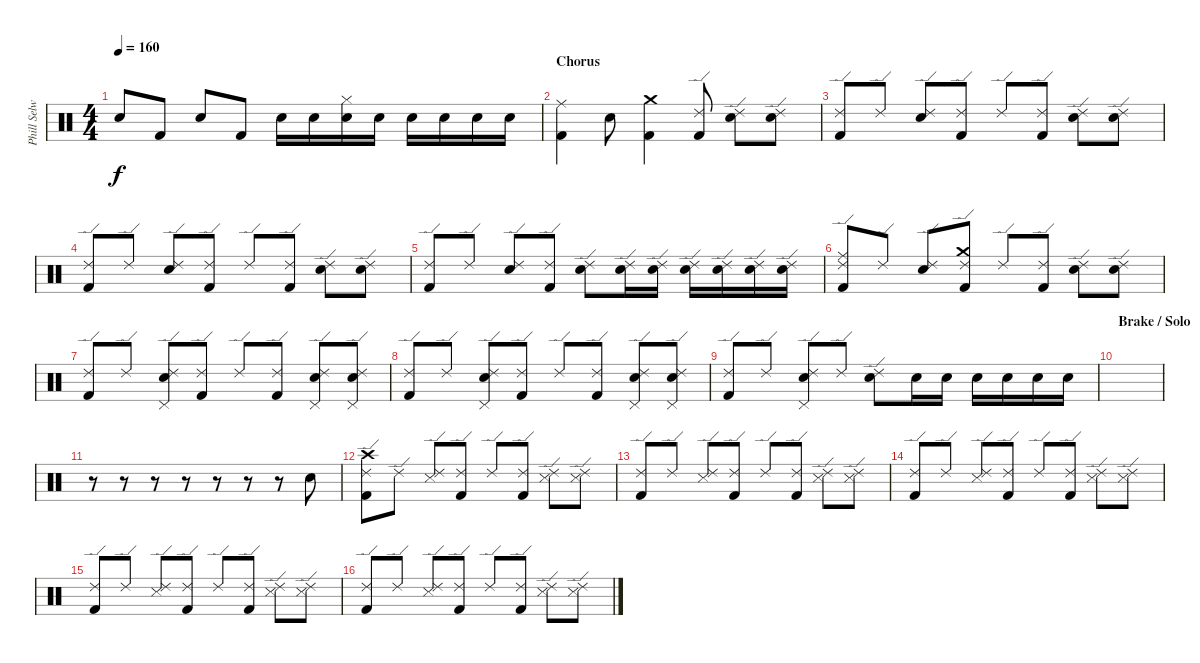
\track ("Phill Selway" "Phill Selw") {instrument percussion}
\staff {score}
\articulation defaults
\ts (4 4)
\tempo 160
\clef neutral
\ks c "Snare (hit) 2".8{dy f} "Kick (hit) 2".8 "Snare (hit) 2".8 "Kick (hit) 2".8 "Snare (hit) 2".16 "Snare (hit) 2".16
("Snare (hit) 2" "Hi-Hat (closed)").16 "Snare (hit) 2".16 "Snare (hit) 2".16 "Snare (hit) 2".16 "Snare (hit) 2".16 "Snare (hit) 2".16 |
\section ("" "Chorus")
("Ride (middle)" "Kick (hit) 2").4 "Snare (hit) 2".8 ("Crash medium (hit)" "Kick (hit) 2").4 ("Kick (hit) 2" "Ride (edge) 2").8 ("Snare (hit) 2" "Ride (edge) 2").8 ("Snare (hit) 2" "Ride (edge) 2").8 |
("Kick (hit) 2" "Ride (edge) 2").8 "Ride (edge) 2".8 ("Snare (hit) 2" "Ride (edge) 2").8 ("Kick (hit) 2" "Ride (edge) 2").8 "Ride (edge) 2".8 ("Kick (hit) 2" "Ride (edge) 2").8 ("Snare (hit) 2" "Ride (edge) 2").8 ("Snare (hit) 2" "Ride (edge) 2").8 |
("Kick (hit) 2" "Ride (edge) 2").8 "Ride (edge) 2".8 ("Snare (hit) 2" "Ride (edge) 2").8 ("Kick (hit) 2" "Ride (edge) 2").8 "Ride (edge) 2".8 ("Kick (hit) 2" "Ride (edge) 2").8 ("Snare (hit) 2" "Ride (edge) 2").8 ("Snare (hit) 2" "Ride (edge) 2").8 |
("Kick (hit) 2" "Ride (edge) 2").8 "Ride (edge) 2".8 ("Snare (hit) 2" "Ride (edge) 2").8 ("Kick (hit) 2" "Ride (edge) 2").8 ("Snare (hit) 2" "Ride (edge) 2").8 ("Snare (hit) 2" "Ride (edge) 2").16 ("Snare (hit) 2" "Ride (edge) 2").16 ("Snare (hit) 2" "Ride (edge) 2").16 ("Snare (hit) 2" "Ride (edge) 2").16 ("Snare (hit) 2" "Ride (edge) 2").16 ("Snare (hit) 2" "Ride (edge) 2").16 |
("Kick (hit) 2" "Ride (middle)" "Ride (edge) 2").8 "Ride (edge) 2".8 ("Snare (hit) 2" "Ride (edge) 2").8 ("Kick (hit) 2" "Crash medium (hit)" "Ride (edge) 2").8 "Ride (edge) 2".8 ("Kick (hit) 2" "Ride (edge) 2").8 ("Snare (hit) 2" "Ride (edge) 2").8 ("Snare (hit) 2" "Ride (edge) 2").8 |
("Kick (hit) 2" "Ride (edge) 2").8 "Ride (edge) 2".8 ("Snare (hit) 2" "Pedal Hi-Hat (hit)" "Ride (edge) 2").8 ("Kick (hit) 2" "Ride (edge) 2").8 "Ride (edge) 2".8 ("Kick (hit) 2" "Ride (edge) 2").8 ("Snare (hit) 2" "Pedal Hi-Hat (hit)" "Ride (edge) 2").8 ("Snare (hit) 2" "Pedal Hi-Hat (hit)" "Ride (edge) 2").8 |
("Kick (hit) 2" "Ride (edge) 2").8 "Ride (edge) 2".8 ("Snare (hit) 2" "Pedal Hi-Hat (hit)" "Ride (edge) 2").8 ("Kick (hit) 2" "Ride (edge) 2").8 "Ride (edge) 2".8 ("Kick (hit) 2" "Ride (edge) 2").8 ("Snare (hit) 2" "Pedal Hi-Hat (hit)" "Ride (edge) 2").8 ("Snare (hit) 2" "Pedal Hi-Hat (hit)" "Ride (edge) 2").8 |
("Kick (hit) 2" "Ride (edge) 2").8 "Ride (edge) 2".8 ("Snare (hit) 2" "Pedal Hi-Hat (hit)" "Ride (edge) 2").8 "Ride (edge) 2".8 ("Snare (hit) 2" "Ride (edge) 2").8 "Snare (hit) 2".16 "Snare (hit) 2".16 "Snare (hit) 2".16 "Snare (hit) 2".16 "Snare (hit) 2".16 "Snare (hit) 2".16 |
\section ("" "Brake / Solo")
|
r.8 r.8 r.8 r.8 r.8 r.8 r.8 "Snare (hit) 2".8 |
("Kick (hit) 2" "Crash high (hit)" "Ride (edge) 2").8 "Ride (edge) 2".8 ("Snare (side stick) 3" "Ride (edge) 2").8 ("Kick (hit) 2" "Ride (edge) 2").8 "Ride (edge) 2".8 ("Kick (hit) 2" "Ride (edge) 2").8 ("Snare (side stick) 3" "Ride (edge) 2").8 ("Snare (side stick) 3" "Ride (edge) 2").8 |
("Kick (hit) 2" "Ride (edge) 2").8 "Ride (edge) 2".8 ("Snare (side stick) 3" "Ride (edge) 2").8 ("Kick (hit) 2" "Ride (edge) 2").8 "Ride (edge) 2".8 ("Kick (hit) 2" "Ride (edge) 2").8 ("Snare (side stick) 3" "Ride (edge) 2").8 ("Snare (side stick) 3" "Ride (edge) 2").8 |
("Kick (hit) 2" "Ride (edge) 2").8 "Ride (edge) 2".8 ("Snare (side stick) 3" "Ride (edge) 2").8 ("Kick (hit) 2" "Ride (edge) 2").8 "Ride (edge) 2".8 ("Kick (hit) 2" "Ride (edge) 2").8 ("Snare (side stick) 3" "Ride (edge) 2").8 ("Snare (side stick) 3" "Ride (edge) 2").8 |
("Kick (hit) 2" "Ride (edge) 2").8 "Ride (edge) 2".8 ("Snare (side stick) 3" "Ride (edge) 2").8 ("Kick (hit) 2" "Ride (edge) 2").8 "Ride (edge) 2".8 ("Kick (hit) 2" "Ride (edge) 2").8 ("Snare (side stick) 3" "Ride (edge) 2").8 ("Snare (side stick) 3" "Ride (edge) 2").8 |
("Kick (hit) 2" "Ride (edge) 2").8 "Ride (edge) 2".8 ("Snare (side stick) 3" "Ride (edge) 2").8 ("Kick (hit) 2" "Ride (edge) 2").8 "Ride (edge) 2".8 ("Kick (hit) 2" "Ride (edge) 2").8 ("Snare (side stick) 3" "Ride (edge) 2").8 ("Snare (side stick) 3" "Ride (edge) 2").8
